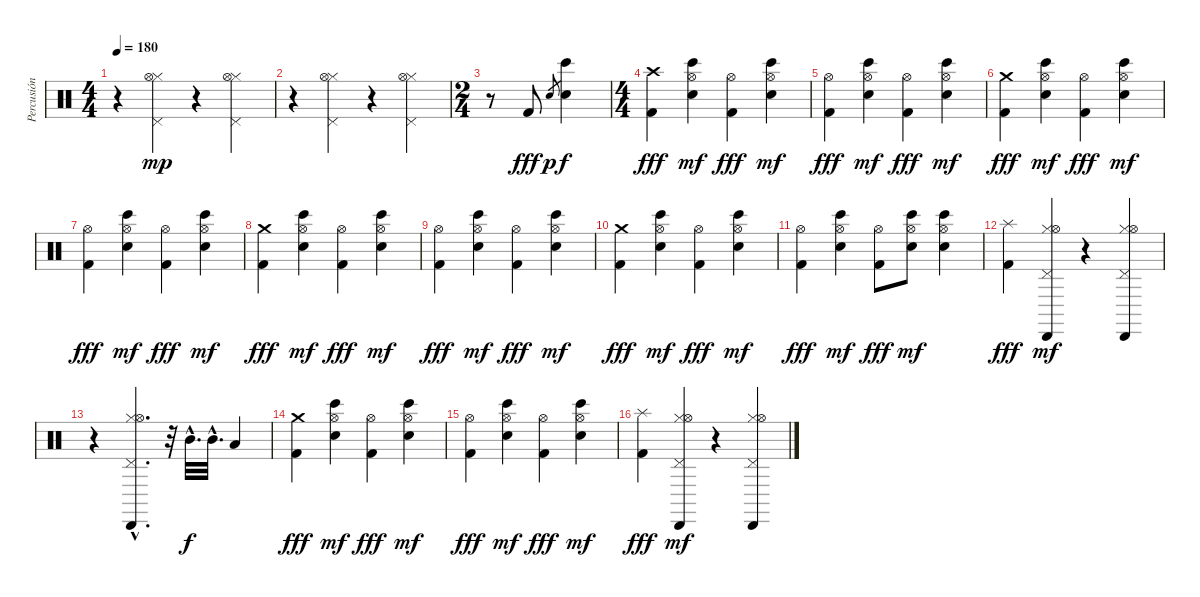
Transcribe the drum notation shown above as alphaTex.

\track ("Percusión" "Percusión") {instrument percussion}
\staff {score}
\articulation defaults
\ts (4 4)
\tempo 180
\clef neutral
\ks c
r.4{dy mp} ("Hi-Hat (closed)" "Pedal Hi-Hat (hit)" "Hi-Hat (open)").4 r.4 ("Hi-Hat (closed)" "Pedal Hi-Hat (hit)" "Hi-Hat (open)").4 |
r.4 ("Hi-Hat (closed)" "Pedal Hi-Hat (hit)" "Hi-Hat (open)").4 r.4 ("Hi-Hat (closed)" "Pedal Hi-Hat (hit)" "Hi-Hat (open)").4 |
\ts (2 4)
r.8 "Kick (hit) 2".8{dy fff} "Snare (hit) 2".8{gr dy p} ("Bongo High (hit)" "Snare (hit) 2").4{dy f} |
\ts (4 4)
("Crash high (hit)" "Kick (hit) 2").4{dy fff} ("Hi-Hat (open)" "Bongo High (hit)" "Snare (hit) 2").4{dy mf} ("Hi-Hat (open)" "Kick (hit) 2").4{dy fff} ("Hi-Hat (open)" "Bongo High (hit)" "Snare (hit) 2").4{dy mf} |
("Hi-Hat (open)" "Kick (hit) 2").4{dy fff} ("Hi-Hat (open)" "Bongo High (hit)" "Snare (hit) 2").4{dy mf} ("Hi-Hat (open)" "Kick (hit) 2").4{dy fff} ("Hi-Hat (open)" "Bongo High (hit)" "Snare (hit) 2").4{dy mf} |
("Crash medium (hit)" "Kick (hit) 2").4{dy fff} ("Hi-Hat (open)" "Bongo High (hit)" "Snare (hit) 2").4{dy mf} ("Hi-Hat (open)" "Kick (hit) 2").4{dy fff} ("Hi-Hat (open)" "Bongo High (hit)" "Snare (hit) 2").4{dy mf} |
("Hi-Hat (open)" "Kick (hit) 2").4{dy fff} ("Hi-Hat (open)" "Bongo High (hit)" "Snare (hit) 2").4{dy mf} ("Hi-Hat (open)" "Kick (hit) 2").4{dy fff} ("Hi-Hat (open)" "Bongo High (hit)" "Snare (hit) 2").4{dy mf} |
("Crash medium (hit)" "Kick (hit) 2").4{dy fff} ("Hi-Hat (open)" "Bongo High (hit)" "Snare (hit) 2").4{dy mf} ("Hi-Hat (open)" "Kick (hit) 2").4{dy fff} ("Hi-Hat (open)" "Bongo High (hit)" "Snare (hit) 2").4{dy mf} |
("Hi-Hat (open)" "Kick (hit) 2").4{dy fff} ("Hi-Hat (open)" "Bongo High (hit)" "Snare (hit) 2").4{dy mf} ("Hi-Hat (open)" "Kick (hit) 2").4{dy fff} ("Hi-Hat (open)" "Bongo High (hit)" "Snare (hit) 2").4{dy mf} |
("Crash medium (hit)" "Kick (hit) 2").4{dy fff} ("Hi-Hat (open)" "Bongo High (hit)" "Snare (hit) 2").4{dy mf} ("Hi-Hat (open)" "Kick (hit) 2").4{dy fff} ("Hi-Hat (open)" "Bongo High (hit)" "Snare (hit) 2").4{dy mf} |
("Hi-Hat (open)" "Kick (hit) 2").4{dy fff} ("Hi-Hat (open)" "Bongo High (hit)" "Snare (hit) 2").4{dy mf} ("Hi-Hat (open)" "Kick (hit) 2").8{dy fff} ("Hi-Hat (open)" "Bongo High (hit)" "Snare (hit) 2").8{dy mf} ("Hi-Hat (open)" "Bongo High (hit)" "Snare (hit) 2").4 |
("Splash (hit)" "Kick (hit) 2").4{dy fff} ("Hi-Hat (closed)" "Pedal Hi-Hat (hit)" "Hi-Hat (open)" "Cabasa (hit)").4{dy mf} r.4 ("Hi-Hat (closed)" "Pedal Hi-Hat (hit)" "Hi-Hat (open)" "Cabasa (hit)").4 |
r.4 ("Hi-Hat (closed)"{hac} "Pedal Hi-Hat (hit)"{hac} "Hi-Hat (open)"{hac} "Cabasa (hit)"{hac}).4{d} r.32 "Mid Tom (hit)"{hac}.32{d dy f} "Mid Tom (hit)"{hac}.32{d} "Low Tom (hit)".4 |
("Crash medium (hit)" "Kick (hit) 2").4{dy fff} ("Hi-Hat (open)" "Bongo High (hit)" "Snare (hit) 2").4{dy mf} ("Hi-Hat (open)" "Kick (hit) 2").4{dy fff} ("Hi-Hat (open)" "Bongo High (hit)" "Snare (hit) 2").4{dy mf} |
("Hi-Hat (open)" "Kick (hit) 2").4{dy fff} ("Hi-Hat (open)" "Bongo High (hit)" "Snare (hit) 2").4{dy mf} ("Hi-Hat (open)" "Kick (hit) 2").4{dy fff} ("Hi-Hat (open)" "Bongo High (hit)" "Snare (hit) 2").4{dy mf} |
("Splash (hit)" "Kick (hit) 2").4{dy fff} ("Hi-Hat (closed)" "Pedal Hi-Hat (hit)" "Hi-Hat (open)" "Cabasa (hit)").4{dy mf} r.4 ("Hi-Hat (closed)" "Pedal Hi-Hat (hit)" "Hi-Hat (open)" "Cabasa (hit)").4
